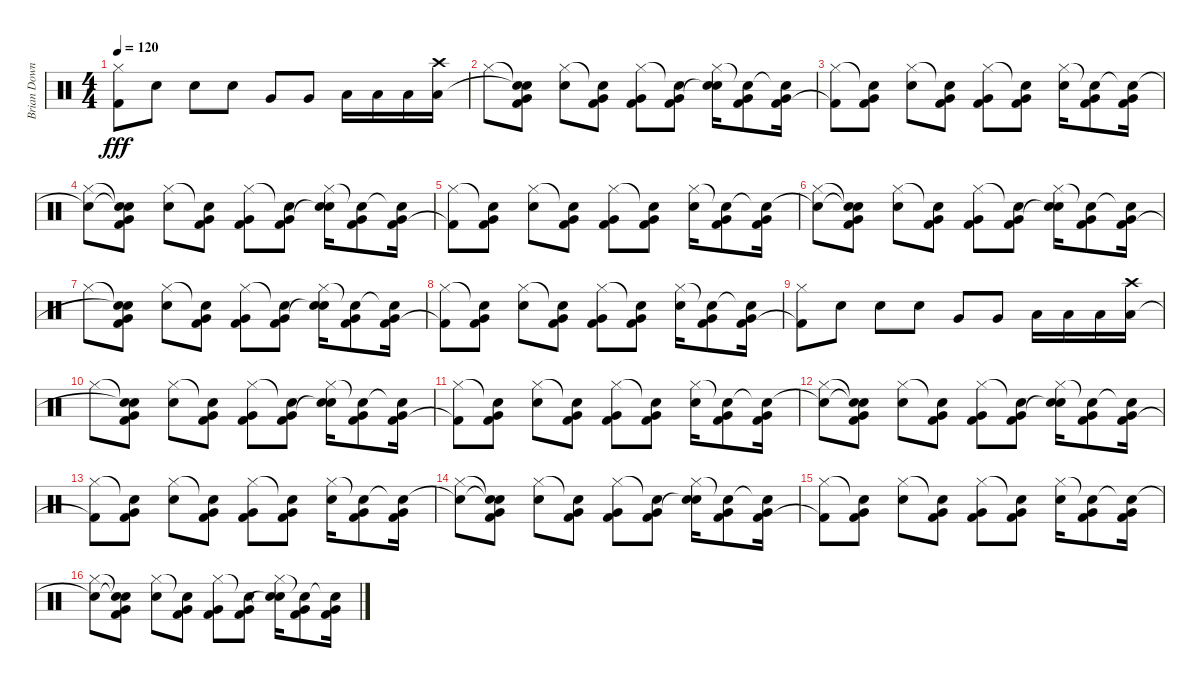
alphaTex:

\track ("Brian Downey" "Brian Down") {instrument percussion}
\staff {score}
\articulation defaults
\ts (4 4)
\tempo 120
\clef neutral
\ks c
("Hi-Hat (closed)" "Kick (hit) 2"{t}).8{dy fff} "Electric Snare (hit)".8 "Electric Snare (hit)".8 "Electric Snare (hit)".8 "Very Low Tom (hit)".8 "Very Low Tom (hit)".8 "Low Floor Tom (hit)".16 "Low Floor Tom (hit)".16 "Low Floor Tom (hit)".16 ("Crash high (hit)" "Low Floor Tom (hit)").16 |
"Hi-Hat (closed)".8 ("Snare (hit)"{t} "Snare (hit)"{t} "Kick (hit) 2" "Very Low Tom (hit)").8 ("Hi-Hat (closed)" "Electric Snare (hit)").8 ("Snare (hit)"{t} "Kick (hit) 2" "Very Low Tom (hit)").8 ("Hi-Hat (closed)" "Kick (hit) 2" "Very Low Tom (hit)").8 ("Snare (hit)"{t} "Kick (hit) 2" "Very Low Tom (hit)").8 ("Hi-Hat (closed)" "Electric Snare (hit)" "Snare (hit)"{t}).16 ("Snare (hit)"{t} "Kick (hit) 2" "Very Low Tom (hit)").8 ("Snare (hit)"{t} "Kick (hit) 2" "Very Low Tom (hit)").16 |
("Hi-Hat (closed)" "Kick (hit) 2"{t}).8 ("Snare (hit)"{t} "Kick (hit) 2" "Very Low Tom (hit)").8 ("Hi-Hat (closed)" "Electric Snare (hit)").8 ("Snare (hit)"{t} "Kick (hit) 2" "Very Low Tom (hit)").8 ("Hi-Hat (closed)" "Kick (hit) 2" "Very Low Tom (hit)").8 ("Snare (hit)"{t} "Kick (hit) 2" "Very Low Tom (hit)").8 ("Hi-Hat (closed)" "Electric Snare (hit)").16 ("Snare (hit)"{t} "Kick (hit) 2" "Very Low Tom (hit)").8 ("Snare (hit)"{t} "Kick (hit) 2" "Very Low Tom (hit)").16 |
("Snare (hit)"{t} "Hi-Hat (closed)").8 ("Snare (hit)"{t} "Snare (hit)"{t} "Kick (hit) 2" "Very Low Tom (hit)").8 ("Hi-Hat (closed)" "Electric Snare (hit)").8 ("Snare (hit)"{t} "Kick (hit) 2" "Very Low Tom (hit)").8 ("Hi-Hat (closed)" "Kick (hit) 2" "Very Low Tom (hit)").8 ("Snare (hit)"{t} "Kick (hit) 2" "Very Low Tom (hit)").8 ("Hi-Hat (closed)" "Electric Snare (hit)" "Snare (hit)"{t}).16 ("Snare (hit)"{t} "Kick (hit) 2" "Very Low Tom (hit)").8 ("Snare (hit)"{t} "Kick (hit) 2" "Very Low Tom (hit)").16 |
("Hi-Hat (closed)" "Kick (hit) 2"{t}).8 ("Snare (hit)"{t} "Kick (hit) 2" "Very Low Tom (hit)").8 ("Hi-Hat (closed)" "Electric Snare (hit)").8 ("Snare (hit)"{t} "Kick (hit) 2" "Very Low Tom (hit)").8 ("Hi-Hat (closed)" "Kick (hit) 2" "Very Low Tom (hit)").8 ("Snare (hit)"{t} "Kick (hit) 2" "Very Low Tom (hit)").8 ("Hi-Hat (closed)" "Electric Snare (hit)").16 ("Snare (hit)"{t} "Kick (hit) 2" "Very Low Tom (hit)").8 ("Snare (hit)"{t} "Kick (hit) 2" "Very Low Tom (hit)").16 |
("Snare (hit)"{t} "Hi-Hat (closed)").8 ("Snare (hit)"{t} "Snare (hit)"{t} "Kick (hit) 2" "Very Low Tom (hit)").8 ("Hi-Hat (closed)" "Electric Snare (hit)").8 ("Snare (hit)"{t} "Kick (hit) 2" "Very Low Tom (hit)").8 ("Hi-Hat (closed)" "Kick (hit) 2" "Very Low Tom (hit)").8 ("Snare (hit)"{t} "Kick (hit) 2" "Very Low Tom (hit)").8 ("Hi-Hat (closed)" "Electric Snare (hit)" "Snare (hit)"{t}).16 ("Snare (hit)"{t} "Kick (hit) 2" "Very Low Tom (hit)").8 ("Snare (hit)"{t} "Kick (hit) 2" "Very Low Tom (hit)").16 |
"Hi-Hat (closed)".8 ("Snare (hit)"{t} "Snare (hit)"{t} "Kick (hit) 2" "Very Low Tom (hit)").8 ("Hi-Hat (closed)" "Electric Snare (hit)").8 ("Snare (hit)"{t} "Kick (hit) 2" "Very Low Tom (hit)").8 ("Hi-Hat (closed)" "Kick (hit) 2" "Very Low Tom (hit)").8 ("Snare (hit)"{t} "Kick (hit) 2" "Very Low Tom (hit)").8 ("Hi-Hat (closed)" "Electric Snare (hit)" "Snare (hit)"{t}).16 ("Snare (hit)"{t} "Kick (hit) 2" "Very Low Tom (hit)").8 ("Snare (hit)"{t} "Kick (hit) 2" "Very Low Tom (hit)").16 |
("Hi-Hat (closed)" "Kick (hit) 2"{t}).8 ("Snare (hit)"{t} "Kick (hit) 2" "Very Low Tom (hit)").8 ("Hi-Hat (closed)" "Electric Snare (hit)").8 ("Snare (hit)"{t} "Kick (hit) 2" "Very Low Tom (hit)").8 ("Hi-Hat (closed)" "Kick (hit) 2" "Very Low Tom (hit)").8 ("Snare (hit)"{t} "Kick (hit) 2" "Very Low Tom (hit)").8 ("Hi-Hat (closed)" "Electric Snare (hit)").16 ("Snare (hit)"{t} "Kick (hit) 2" "Very Low Tom (hit)").8 ("Snare (hit)"{t} "Kick (hit) 2" "Very Low Tom (hit)").16 |
("Hi-Hat (closed)" "Kick (hit) 2"{t}).8 "Electric Snare (hit)".8 "Electric Snare (hit)".8 "Electric Snare (hit)".8 "Very Low Tom (hit)".8 "Very Low Tom (hit)".8 "Low Floor Tom (hit)".16 "Low Floor Tom (hit)".16 "Low Floor Tom (hit)".16 ("Crash high (hit)" "Low Floor Tom (hit)").16 |
"Hi-Hat (closed)".8 ("Snare (hit)"{t} "Snare (hit)"{t} "Kick (hit) 2" "Very Low Tom (hit)").8 ("Hi-Hat (closed)" "Electric Snare (hit)").8 ("Snare (hit)"{t} "Kick (hit) 2" "Very Low Tom (hit)").8 ("Hi-Hat (closed)" "Kick (hit) 2" "Very Low Tom (hit)").8 ("Snare (hit)"{t} "Kick (hit) 2" "Very Low Tom (hit)").8 ("Hi-Hat (closed)" "Electric Snare (hit)" "Snare (hit)"{t}).16 ("Snare (hit)"{t} "Kick (hit) 2" "Very Low Tom (hit)").8 ("Snare (hit)"{t} "Kick (hit) 2" "Very Low Tom (hit)").16 |
("Hi-Hat (closed)" "Kick (hit) 2"{t}).8 ("Snare (hit)"{t} "Kick (hit) 2" "Very Low Tom (hit)").8 ("Hi-Hat (closed)" "Electric Snare (hit)").8 ("Snare (hit)"{t} "Kick (hit) 2" "Very Low Tom (hit)").8 ("Hi-Hat (closed)" "Kick (hit) 2" "Very Low Tom (hit)").8 ("Snare (hit)"{t} "Kick (hit) 2" "Very Low Tom (hit)").8 ("Hi-Hat (closed)" "Electric Snare (hit)").16 ("Snare (hit)"{t} "Kick (hit) 2" "Very Low Tom (hit)").8 ("Snare (hit)"{t} "Kick (hit) 2" "Very Low Tom (hit)").16 |
("Snare (hit)"{t} "Hi-Hat (closed)").8 ("Snare (hit)"{t} "Snare (hit)"{t} "Kick (hit) 2" "Very Low Tom (hit)").8 ("Hi-Hat (closed)" "Electric Snare (hit)").8 ("Snare (hit)"{t} "Kick (hit) 2" "Very Low Tom (hit)").8 ("Hi-Hat (closed)" "Kick (hit) 2" "Very Low Tom (hit)").8 ("Snare (hit)"{t} "Kick (hit) 2" "Very Low Tom (hit)").8 ("Hi-Hat (closed)" "Electric Snare (hit)" "Snare (hit)"{t}).16 ("Snare (hit)"{t} "Kick (hit) 2" "Very Low Tom (hit)").8 ("Snare (hit)"{t} "Kick (hit) 2" "Very Low Tom (hit)").16 |
("Hi-Hat (closed)" "Kick (hit) 2"{t}).8 ("Snare (hit)"{t} "Kick (hit) 2" "Very Low Tom (hit)").8 ("Hi-Hat (closed)" "Electric Snare (hit)").8 ("Snare (hit)"{t} "Kick (hit) 2" "Very Low Tom (hit)").8 ("Hi-Hat (closed)" "Kick (hit) 2" "Very Low Tom (hit)").8 ("Snare (hit)"{t} "Kick (hit) 2" "Very Low Tom (hit)").8 ("Hi-Hat (closed)" "Electric Snare (hit)").16 ("Snare (hit)"{t} "Kick (hit) 2" "Very Low Tom (hit)").8 ("Snare (hit)"{t} "Kick (hit) 2" "Very Low Tom (hit)").16 |
("Snare (hit)"{t} "Hi-Hat (closed)").8 ("Snare (hit)"{t} "Snare (hit)"{t} "Kick (hit) 2" "Very Low Tom (hit)").8 ("Hi-Hat (closed)" "Electric Snare (hit)").8 ("Snare (hit)"{t} "Kick (hit) 2" "Very Low Tom (hit)").8 ("Hi-Hat (closed)" "Kick (hit) 2" "Very Low Tom (hit)").8 ("Snare (hit)"{t} "Kick (hit) 2" "Very Low Tom (hit)").8 ("Hi-Hat (closed)" "Electric Snare (hit)" "Snare (hit)"{t}).16 ("Snare (hit)"{t} "Kick (hit) 2" "Very Low Tom (hit)").8 ("Snare (hit)"{t} "Kick (hit) 2" "Very Low Tom (hit)").16 |
("Hi-Hat (closed)" "Kick (hit) 2"{t}).8 ("Snare (hit)"{t} "Kick (hit) 2" "Very Low Tom (hit)").8 ("Hi-Hat (closed)" "Electric Snare (hit)").8 ("Snare (hit)"{t} "Kick (hit) 2" "Very Low Tom (hit)").8 ("Hi-Hat (closed)" "Kick (hit) 2" "Very Low Tom (hit)").8 ("Snare (hit)"{t} "Kick (hit) 2" "Very Low Tom (hit)").8 ("Hi-Hat (closed)" "Electric Snare (hit)").16 ("Snare (hit)"{t} "Kick (hit) 2" "Very Low Tom (hit)").8 ("Snare (hit)"{t} "Kick (hit) 2" "Very Low Tom (hit)").16 |
("Snare (hit)"{t} "Hi-Hat (closed)").8 ("Snare (hit)"{t} "Snare (hit)"{t} "Kick (hit) 2" "Very Low Tom (hit)").8 ("Hi-Hat (closed)" "Electric Snare (hit)").8 ("Snare (hit)"{t} "Kick (hit) 2" "Very Low Tom (hit)").8 ("Hi-Hat (closed)" "Kick (hit) 2" "Very Low Tom (hit)").8 ("Snare (hit)"{t} "Kick (hit) 2" "Very Low Tom (hit)").8 ("Hi-Hat (closed)" "Electric Snare (hit)" "Snare (hit)"{t}).16 ("Snare (hit)"{t} "Kick (hit) 2" "Very Low Tom (hit)").8 ("Snare (hit)"{t} "Kick (hit) 2" "Very Low Tom (hit)").16
